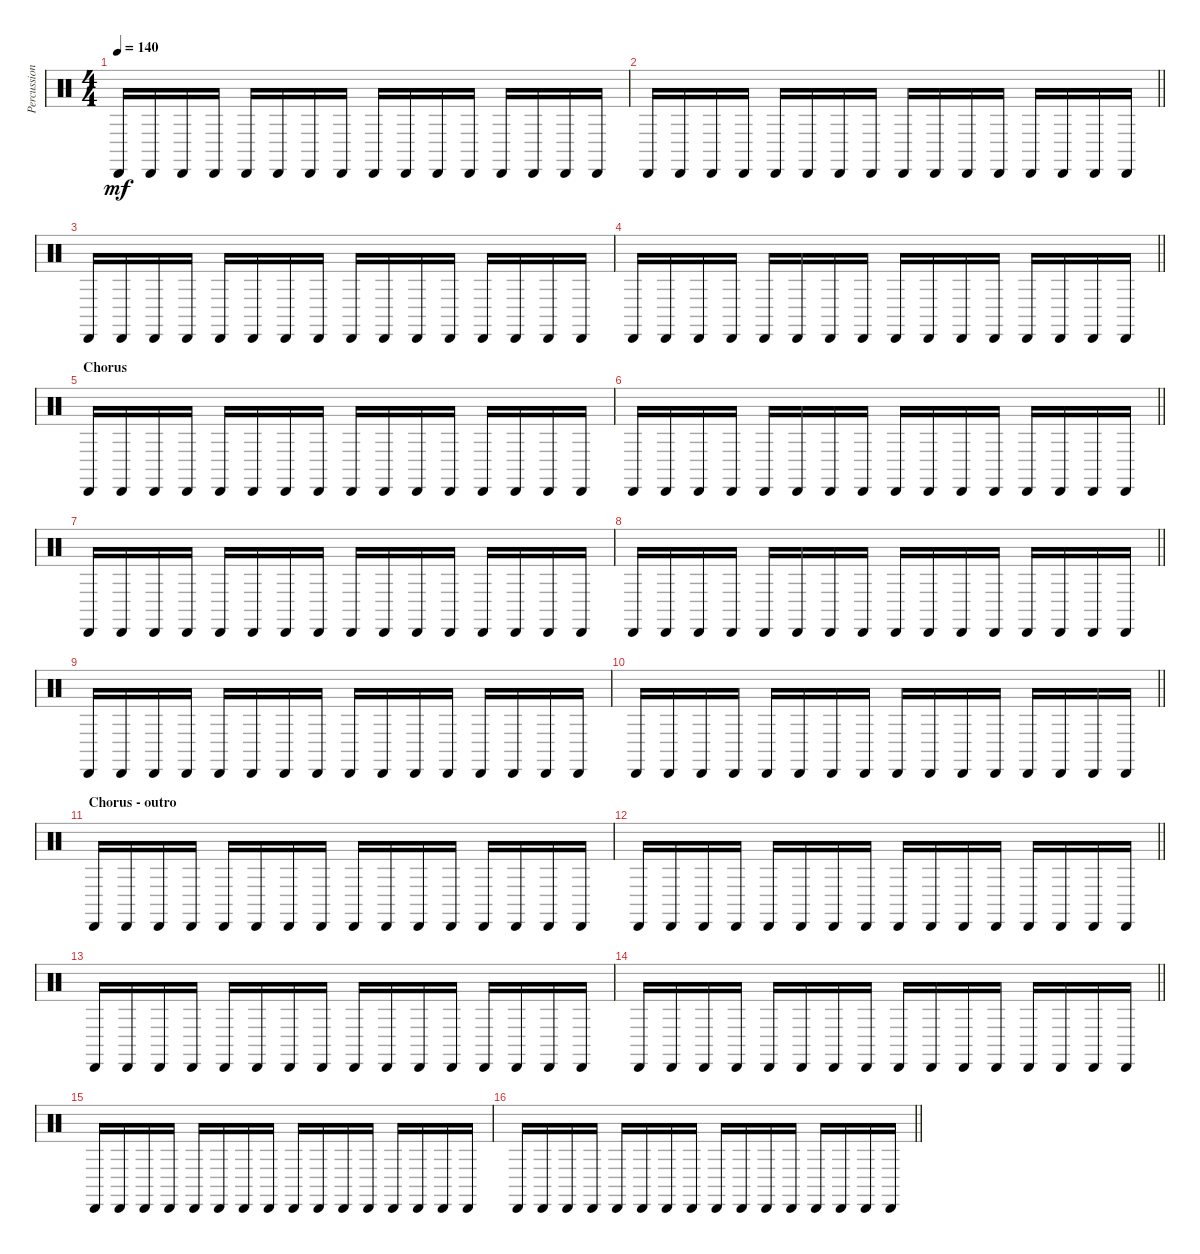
\track ("Percussioni" "Percussion") {instrument percussion}
\staff {score}
\articulation defaults
\ts (4 4)
\tempo 140
\clef neutral
\ks c "Cabasa (hit)".16{dy mf} "Cabasa (hit)".16 "Cabasa (hit)".16 "Cabasa (hit)".16 "Cabasa (hit)".16 "Cabasa (hit)".16 "Cabasa (hit)".16 "Cabasa (hit)".16 "Cabasa (hit)".16 "Cabasa (hit)".16 "Cabasa (hit)".16 "Cabasa (hit)".16 "Cabasa (hit)".16 "Cabasa (hit)".16 "Cabasa (hit)".16 "Cabasa (hit)".16
|
\barLineRight lightlight "Cabasa (hit)".16 "Cabasa (hit)".16 "Cabasa (hit)".16 "Cabasa (hit)".16 "Cabasa (hit)".16 "Cabasa (hit)".16 "Cabasa (hit)".16 "Cabasa (hit)".16 "Cabasa (hit)".16 "Cabasa (hit)".16 "Cabasa (hit)".16 "Cabasa (hit)".16 "Cabasa (hit)".16 "Cabasa (hit)".16 "Cabasa (hit)".16 "Cabasa (hit)".16
|
"Cabasa (hit)".16 "Cabasa (hit)".16 "Cabasa (hit)".16 "Cabasa (hit)".16 "Cabasa (hit)".16 "Cabasa (hit)".16 "Cabasa (hit)".16 "Cabasa (hit)".16 "Cabasa (hit)".16 "Cabasa (hit)".16 "Cabasa (hit)".16 "Cabasa (hit)".16 "Cabasa (hit)".16 "Cabasa (hit)".16 "Cabasa (hit)".16 "Cabasa (hit)".16 |
\barLineRight lightlight "Cabasa (hit)".16 "Cabasa (hit)".16 "Cabasa (hit)".16 "Cabasa (hit)".16 "Cabasa (hit)".16 "Cabasa (hit)".16 "Cabasa (hit)".16 "Cabasa (hit)".16 "Cabasa (hit)".16 "Cabasa (hit)".16 "Cabasa (hit)".16 "Cabasa (hit)".16 "Cabasa (hit)".16 "Cabasa (hit)".16 "Cabasa (hit)".16 "Cabasa (hit)".16
|
\section ("" "Chorus")
"Cabasa (hit)".16 "Cabasa (hit)".16 "Cabasa (hit)".16 "Cabasa (hit)".16 "Cabasa (hit)".16 "Cabasa (hit)".16 "Cabasa (hit)".16 "Cabasa (hit)".16 "Cabasa (hit)".16 "Cabasa (hit)".16 "Cabasa (hit)".16 "Cabasa (hit)".16 "Cabasa (hit)".16 "Cabasa (hit)".16 "Cabasa (hit)".16 "Cabasa (hit)".16 |
\barLineRight lightlight "Cabasa (hit)".16 "Cabasa (hit)".16 "Cabasa (hit)".16 "Cabasa (hit)".16 "Cabasa (hit)".16 "Cabasa (hit)".16 "Cabasa (hit)".16 "Cabasa (hit)".16 "Cabasa (hit)".16 "Cabasa (hit)".16 "Cabasa (hit)".16 "Cabasa (hit)".16 "Cabasa (hit)".16 "Cabasa (hit)".16 "Cabasa (hit)".16 "Cabasa (hit)".16
|
"Cabasa (hit)".16 "Cabasa (hit)".16 "Cabasa (hit)".16 "Cabasa (hit)".16 "Cabasa (hit)".16 "Cabasa (hit)".16 "Cabasa (hit)".16 "Cabasa (hit)".16 "Cabasa (hit)".16 "Cabasa (hit)".16 "Cabasa (hit)".16 "Cabasa (hit)".16 "Cabasa (hit)".16 "Cabasa (hit)".16 "Cabasa (hit)".16 "Cabasa (hit)".16 |
\barLineRight lightlight "Cabasa (hit)".16 "Cabasa (hit)".16 "Cabasa (hit)".16 "Cabasa (hit)".16 "Cabasa (hit)".16 "Cabasa (hit)".16 "Cabasa (hit)".16 "Cabasa (hit)".16 "Cabasa (hit)".16 "Cabasa (hit)".16 "Cabasa (hit)".16 "Cabasa (hit)".16 "Cabasa (hit)".16 "Cabasa (hit)".16 "Cabasa (hit)".16 "Cabasa (hit)".16
|
"Cabasa (hit)".16 "Cabasa (hit)".16 "Cabasa (hit)".16 "Cabasa (hit)".16 "Cabasa (hit)".16 "Cabasa (hit)".16 "Cabasa (hit)".16 "Cabasa (hit)".16 "Cabasa (hit)".16 "Cabasa (hit)".16 "Cabasa (hit)".16 "Cabasa (hit)".16 "Cabasa (hit)".16 "Cabasa (hit)".16 "Cabasa (hit)".16 "Cabasa (hit)".16 |
\barLineRight lightlight "Cabasa (hit)".16 "Cabasa (hit)".16 "Cabasa (hit)".16 "Cabasa (hit)".16 "Cabasa (hit)".16 "Cabasa (hit)".16 "Cabasa (hit)".16 "Cabasa (hit)".16 "Cabasa (hit)".16 "Cabasa (hit)".16 "Cabasa (hit)".16 "Cabasa (hit)".16 "Cabasa (hit)".16 "Cabasa (hit)".16 "Cabasa (hit)".16 "Cabasa (hit)".16
|
\section ("" "Chorus - outro")
"Cabasa (hit)".16 "Cabasa (hit)".16 "Cabasa (hit)".16 "Cabasa (hit)".16 "Cabasa (hit)".16 "Cabasa (hit)".16 "Cabasa (hit)".16 "Cabasa (hit)".16 "Cabasa (hit)".16 "Cabasa (hit)".16 "Cabasa (hit)".16 "Cabasa (hit)".16 "Cabasa (hit)".16 "Cabasa (hit)".16 "Cabasa (hit)".16 "Cabasa (hit)".16 |
\barLineRight lightlight "Cabasa (hit)".16 "Cabasa (hit)".16 "Cabasa (hit)".16 "Cabasa (hit)".16 "Cabasa (hit)".16 "Cabasa (hit)".16 "Cabasa (hit)".16 "Cabasa (hit)".16 "Cabasa (hit)".16 "Cabasa (hit)".16 "Cabasa (hit)".16 "Cabasa (hit)".16 "Cabasa (hit)".16 "Cabasa (hit)".16 "Cabasa (hit)".16 "Cabasa (hit)".16
|
"Cabasa (hit)".16 "Cabasa (hit)".16 "Cabasa (hit)".16 "Cabasa (hit)".16 "Cabasa (hit)".16 "Cabasa (hit)".16 "Cabasa (hit)".16 "Cabasa (hit)".16 "Cabasa (hit)".16 "Cabasa (hit)".16 "Cabasa (hit)".16 "Cabasa (hit)".16 "Cabasa (hit)".16 "Cabasa (hit)".16 "Cabasa (hit)".16 "Cabasa (hit)".16 |
\barLineRight lightlight "Cabasa (hit)".16 "Cabasa (hit)".16 "Cabasa (hit)".16 "Cabasa (hit)".16 "Cabasa (hit)".16 "Cabasa (hit)".16 "Cabasa (hit)".16 "Cabasa (hit)".16 "Cabasa (hit)".16 "Cabasa (hit)".16 "Cabasa (hit)".16 "Cabasa (hit)".16 "Cabasa (hit)".16 "Cabasa (hit)".16 "Cabasa (hit)".16 "Cabasa (hit)".16
|
"Cabasa (hit)".16 "Cabasa (hit)".16 "Cabasa (hit)".16 "Cabasa (hit)".16 "Cabasa (hit)".16 "Cabasa (hit)".16 "Cabasa (hit)".16 "Cabasa (hit)".16 "Cabasa (hit)".16 "Cabasa (hit)".16 "Cabasa (hit)".16 "Cabasa (hit)".16 "Cabasa (hit)".16 "Cabasa (hit)".16 "Cabasa (hit)".16 "Cabasa (hit)".16 |
\barLineRight lightlight "Cabasa (hit)".16 "Cabasa (hit)".16 "Cabasa (hit)".16 "Cabasa (hit)".16 "Cabasa (hit)".16 "Cabasa (hit)".16 "Cabasa (hit)".16 "Cabasa (hit)".16 "Cabasa (hit)".16 "Cabasa (hit)".16 "Cabasa (hit)".16 "Cabasa (hit)".16 "Cabasa (hit)".16 "Cabasa (hit)".16 "Cabasa (hit)".16 "Cabasa (hit)".16
